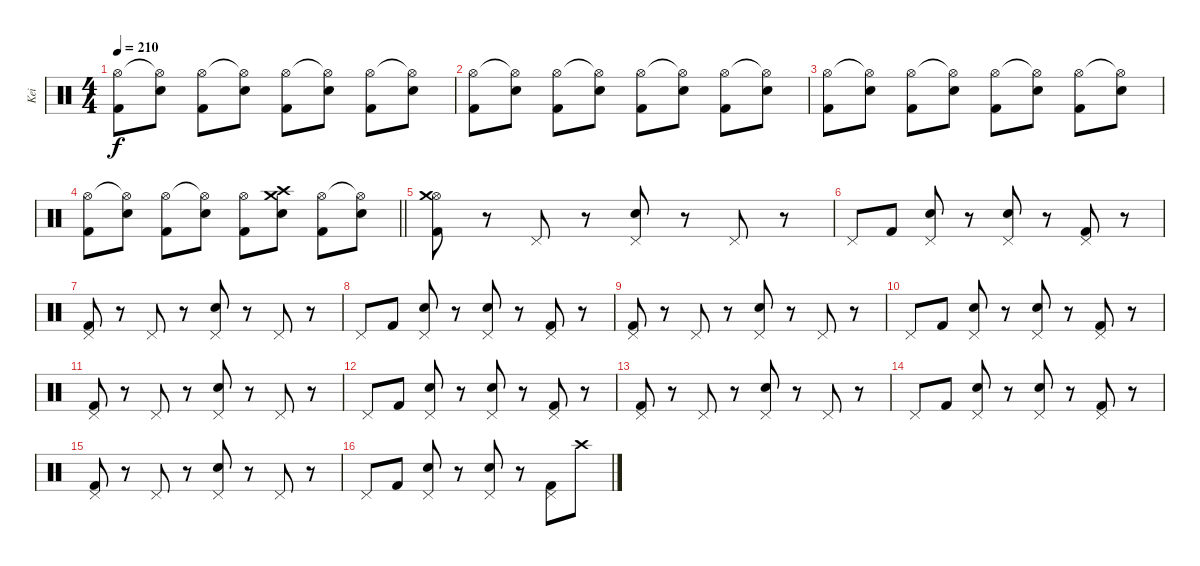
\track ("Kei" "Kei") {instrument percussion}
\staff {score}
\articulation defaults
\ts (4 4)
\tempo 210
\clef neutral
\ks c
("Hi-Hat (open)" "Kick (hit) 2").8{dy f} ("Hi-Hat (open)"{t} "Electric Snare (hit)").8 ("Hi-Hat (open)" "Kick (hit) 2").8 ("Hi-Hat (open)"{t} "Electric Snare (hit)").8 ("Hi-Hat (open)" "Kick (hit) 2").8 ("Hi-Hat (open)"{t} "Electric Snare (hit)").8 ("Hi-Hat (open)" "Kick (hit) 2").8 ("Hi-Hat (open)"{t} "Electric Snare (hit)").8 |
("Hi-Hat (open)" "Kick (hit) 2").8 ("Hi-Hat (open)"{t} "Electric Snare (hit)").8 ("Hi-Hat (open)" "Kick (hit) 2").8 ("Hi-Hat (open)"{t} "Electric Snare (hit)").8 ("Hi-Hat (open)" "Kick (hit) 2").8 ("Hi-Hat (open)"{t} "Electric Snare (hit)").8 ("Hi-Hat (open)" "Kick (hit) 2").8 ("Hi-Hat (open)"{t} "Electric Snare (hit)").8 |
("Hi-Hat (open)" "Kick (hit) 2").8 ("Hi-Hat (open)"{t} "Electric Snare (hit)").8 ("Hi-Hat (open)" "Kick (hit) 2").8 ("Hi-Hat (open)"{t} "Electric Snare (hit)").8 ("Hi-Hat (open)" "Kick (hit) 2").8 ("Hi-Hat (open)"{t} "Electric Snare (hit)").8 ("Hi-Hat (open)" "Kick (hit) 2").8 ("Hi-Hat (open)"{t} "Electric Snare (hit)").8 |
\barLineRight lightlight
("Hi-Hat (open)" "Kick (hit) 2").8 ("Hi-Hat (open)"{t} "Electric Snare (hit)").8 ("Hi-Hat (open)" "Kick (hit) 2").8 ("Hi-Hat (open)"{t} "Electric Snare (hit)").8 ("Hi-Hat (open)" "Kick (hit) 2").8 ("Crash medium (hit)" "Crash high (hit)" "Electric Snare (hit)").8 ("Hi-Hat (open)" "Kick (hit) 2").8 ("Hi-Hat (open)"{t} "Electric Snare (hit)").8 |
("Hi-Hat (open)" "Crash medium (hit)" "Kick (hit) 2").8 r.8 "Pedal Hi-Hat (hit)".8 r.8 ("Pedal Hi-Hat (hit)" "Electric Snare (hit)").8 r.8 "Pedal Hi-Hat (hit)".8 r.8 |
"Pedal Hi-Hat (hit)".8 "Kick (hit) 2".8 ("Pedal Hi-Hat (hit)" "Electric Snare (hit)").8 r.8 ("Pedal Hi-Hat (hit)" "Electric Snare (hit)").8 r.8 ("Pedal Hi-Hat (hit)" "Kick (hit) 2").8 r.8 |
("Pedal Hi-Hat (hit)" "Kick (hit) 2").8 r.8 "Pedal Hi-Hat (hit)".8 r.8 ("Pedal Hi-Hat (hit)" "Electric Snare (hit)").8 r.8 "Pedal Hi-Hat (hit)".8 r.8 |
"Pedal Hi-Hat (hit)".8 "Kick (hit) 2".8 ("Pedal Hi-Hat (hit)" "Electric Snare (hit)").8 r.8 ("Pedal Hi-Hat (hit)" "Electric Snare (hit)").8 r.8 ("Pedal Hi-Hat (hit)" "Kick (hit) 2").8 r.8 |
("Pedal Hi-Hat (hit)" "Kick (hit) 2").8 r.8 "Pedal Hi-Hat (hit)".8 r.8 ("Pedal Hi-Hat (hit)" "Electric Snare (hit)").8 r.8 "Pedal Hi-Hat (hit)".8 r.8 |
"Pedal Hi-Hat (hit)".8 "Kick (hit) 2".8 ("Pedal Hi-Hat (hit)" "Electric Snare (hit)").8 r.8 ("Pedal Hi-Hat (hit)" "Electric Snare (hit)").8 r.8 ("Pedal Hi-Hat (hit)" "Kick (hit) 2").8 r.8 |
("Pedal Hi-Hat (hit)" "Kick (hit) 2").8 r.8 "Pedal Hi-Hat (hit)".8 r.8 ("Pedal Hi-Hat (hit)" "Electric Snare (hit)").8 r.8 "Pedal Hi-Hat (hit)".8 r.8 |
"Pedal Hi-Hat (hit)".8 "Kick (hit) 2".8 ("Pedal Hi-Hat (hit)" "Electric Snare (hit)").8 r.8 ("Pedal Hi-Hat (hit)" "Electric Snare (hit)").8 r.8 ("Pedal Hi-Hat (hit)" "Kick (hit) 2").8 r.8 |
("Pedal Hi-Hat (hit)" "Kick (hit) 2").8 r.8 "Pedal Hi-Hat (hit)".8 r.8 ("Pedal Hi-Hat (hit)" "Electric Snare (hit)").8 r.8 "Pedal Hi-Hat (hit)".8 r.8 |
"Pedal Hi-Hat (hit)".8 "Kick (hit) 2".8 ("Pedal Hi-Hat (hit)" "Electric Snare (hit)").8 r.8 ("Pedal Hi-Hat (hit)" "Electric Snare (hit)").8 r.8 ("Pedal Hi-Hat (hit)" "Kick (hit) 2").8 r.8 |
("Pedal Hi-Hat (hit)" "Kick (hit) 2").8 r.8 "Pedal Hi-Hat (hit)".8 r.8 ("Pedal Hi-Hat (hit)" "Electric Snare (hit)").8 r.8 "Pedal Hi-Hat (hit)".8 r.8 |
"Pedal Hi-Hat (hit)".8 "Kick (hit) 2".8 ("Pedal Hi-Hat (hit)" "Electric Snare (hit)").8 r.8 ("Pedal Hi-Hat (hit)" "Electric Snare (hit)").8 r.8 ("Pedal Hi-Hat (hit)" "Kick (hit) 2").8 "Crash high (hit)".8
